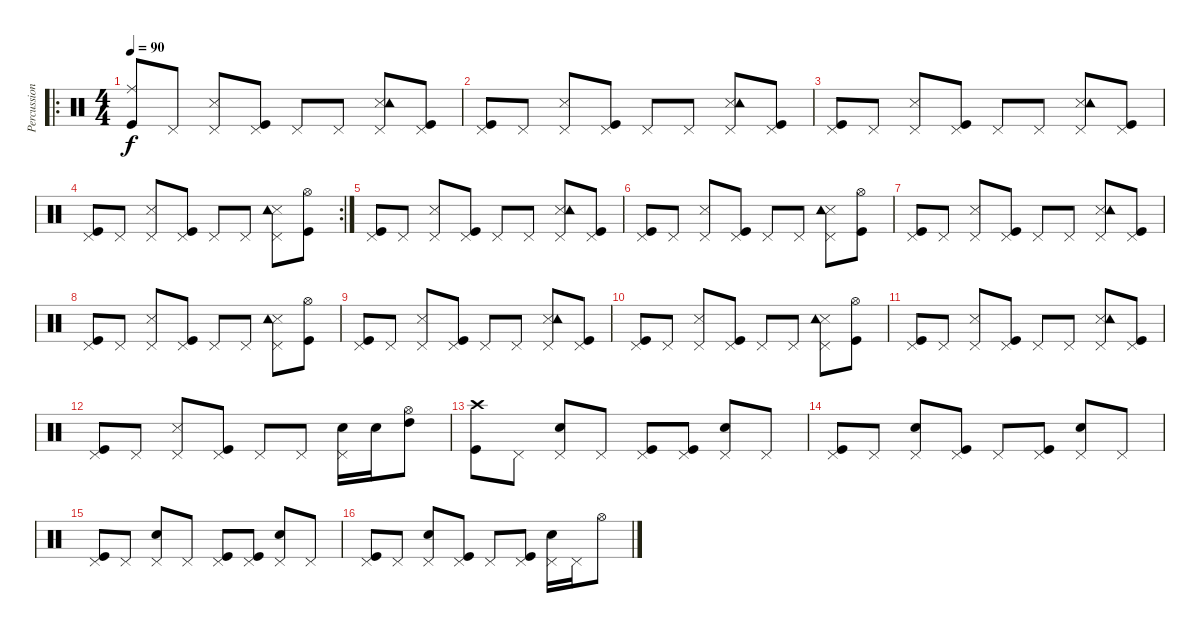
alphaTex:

\track ("Percussions" "Percussion") {instrument percussion}
\staff {score}
\articulation defaults
\ro
\ts (4 4)
\tempo 90
\clef neutral
\ks c
("Ride (middle)" "Kick (hit)").8{dy f} "Pedal Hi-Hat (hit)".8 ("Pedal Hi-Hat (hit)" "Snare (side stick) 3").8 ("Pedal Hi-Hat (hit)" "Kick (hit)").8 "Pedal Hi-Hat (hit)".8 "Pedal Hi-Hat (hit)".8 ("Pedal Hi-Hat (hit)" "Snare (side stick) 3" "Tambourine (hit)").8 ("Pedal Hi-Hat (hit)" "Kick (hit)").8 |
("Pedal Hi-Hat (hit)" "Kick (hit)").8 "Pedal Hi-Hat (hit)".8 ("Pedal Hi-Hat (hit)" "Snare (side stick) 3").8 ("Pedal Hi-Hat (hit)" "Kick (hit)").8 "Pedal Hi-Hat (hit)".8 "Pedal Hi-Hat (hit)".8 ("Pedal Hi-Hat (hit)" "Snare (side stick) 3" "Tambourine (hit)").8 ("Pedal Hi-Hat (hit)" "Kick (hit)").8 |
("Pedal Hi-Hat (hit)" "Kick (hit)").8 "Pedal Hi-Hat (hit)".8 ("Pedal Hi-Hat (hit)" "Snare (side stick) 3").8 ("Pedal Hi-Hat (hit)" "Kick (hit)").8 "Pedal Hi-Hat (hit)".8 "Pedal Hi-Hat (hit)".8 ("Pedal Hi-Hat (hit)" "Snare (side stick) 3" "Tambourine (hit)").8 ("Pedal Hi-Hat (hit)" "Kick (hit)").8 |
\rc 2
("Pedal Hi-Hat (hit)" "Kick (hit)").8 "Pedal Hi-Hat (hit)".8 ("Pedal Hi-Hat (hit)" "Snare (side stick) 3").8 ("Pedal Hi-Hat (hit)" "Kick (hit)").8 "Pedal Hi-Hat (hit)".8 "Pedal Hi-Hat (hit)".8 ("Pedal Hi-Hat (hit)" "Snare (side stick) 3" "Tambourine (hit)").8 ("Hi-Hat (open)" "Kick (hit)").8 |
("Pedal Hi-Hat (hit)" "Kick (hit)").8 "Pedal Hi-Hat (hit)".8 ("Pedal Hi-Hat (hit)" "Snare (side stick) 3").8 ("Pedal Hi-Hat (hit)" "Kick (hit)").8 "Pedal Hi-Hat (hit)".8 "Pedal Hi-Hat (hit)".8 ("Pedal Hi-Hat (hit)" "Snare (side stick) 3" "Tambourine (hit)").8 ("Pedal Hi-Hat (hit)" "Kick (hit)").8 |
("Pedal Hi-Hat (hit)" "Kick (hit)").8 "Pedal Hi-Hat (hit)".8 ("Pedal Hi-Hat (hit)" "Snare (side stick) 3").8 ("Pedal Hi-Hat (hit)" "Kick (hit)").8 "Pedal Hi-Hat (hit)".8 "Pedal Hi-Hat (hit)".8 ("Pedal Hi-Hat (hit)" "Snare (side stick) 3" "Tambourine (hit)").8 ("Hi-Hat (open)" "Kick (hit)").8 |
("Pedal Hi-Hat (hit)" "Kick (hit)").8 "Pedal Hi-Hat (hit)".8 ("Pedal Hi-Hat (hit)" "Snare (side stick) 3").8 ("Pedal Hi-Hat (hit)" "Kick (hit)").8 "Pedal Hi-Hat (hit)".8 "Pedal Hi-Hat (hit)".8 ("Pedal Hi-Hat (hit)" "Snare (side stick) 3" "Tambourine (hit)").8 ("Pedal Hi-Hat (hit)" "Kick (hit)").8 |
("Pedal Hi-Hat (hit)" "Kick (hit)").8 "Pedal Hi-Hat (hit)".8 ("Pedal Hi-Hat (hit)" "Snare (side stick) 3").8 ("Pedal Hi-Hat (hit)" "Kick (hit)").8 "Pedal Hi-Hat (hit)".8 "Pedal Hi-Hat (hit)".8 ("Pedal Hi-Hat (hit)" "Snare (side stick) 3" "Tambourine (hit)").8 ("Hi-Hat (open)" "Kick (hit)").8 |
("Pedal Hi-Hat (hit)" "Kick (hit)").8 "Pedal Hi-Hat (hit)".8 ("Pedal Hi-Hat (hit)" "Snare (side stick) 3").8 ("Pedal Hi-Hat (hit)" "Kick (hit)").8 "Pedal Hi-Hat (hit)".8 "Pedal Hi-Hat (hit)".8 ("Pedal Hi-Hat (hit)" "Snare (side stick) 3" "Tambourine (hit)").8 ("Pedal Hi-Hat (hit)" "Kick (hit)").8 |
("Pedal Hi-Hat (hit)" "Kick (hit)").8 "Pedal Hi-Hat (hit)".8 ("Pedal Hi-Hat (hit)" "Snare (side stick) 3").8 ("Pedal Hi-Hat (hit)" "Kick (hit)").8 "Pedal Hi-Hat (hit)".8 "Pedal Hi-Hat (hit)".8 ("Pedal Hi-Hat (hit)" "Snare (side stick) 3" "Tambourine (hit)").8 ("Hi-Hat (open)" "Kick (hit)").8 |
("Pedal Hi-Hat (hit)" "Kick (hit)").8 "Pedal Hi-Hat (hit)".8 ("Pedal Hi-Hat (hit)" "Snare (side stick) 3").8 ("Pedal Hi-Hat (hit)" "Kick (hit)").8 "Pedal Hi-Hat (hit)".8 "Pedal Hi-Hat (hit)".8 ("Pedal Hi-Hat (hit)" "Snare (side stick) 3" "Tambourine (hit)").8 ("Pedal Hi-Hat (hit)" "Kick (hit)").8 |
("Pedal Hi-Hat (hit)" "Kick (hit)").8 "Pedal Hi-Hat (hit)".8 ("Pedal Hi-Hat (hit)" "Snare (side stick) 3").8 ("Pedal Hi-Hat (hit)" "Kick (hit)").8 "Pedal Hi-Hat (hit)".8 "Pedal Hi-Hat (hit)".8 ("Pedal Hi-Hat (hit)" "Snare (hit) 2").16 "Snare (hit) 2".16 ("Hi-Hat (open)" "High Tom (hit)").8 |
("Crash high (hit)" "Kick (hit)").8 "Pedal Hi-Hat (hit)".8 ("Pedal Hi-Hat (hit)" "Snare (hit) 2").8 "Pedal Hi-Hat (hit)".8 ("Pedal Hi-Hat (hit)" "Kick (hit)").8 ("Pedal Hi-Hat (hit)" "Kick (hit)").8 ("Pedal Hi-Hat (hit)" "Snare (hit) 2").8 "Pedal Hi-Hat (hit)".8 |
("Pedal Hi-Hat (hit)" "Kick (hit)").8 "Pedal Hi-Hat (hit)".8 ("Pedal Hi-Hat (hit)" "Snare (hit) 2").8 ("Pedal Hi-Hat (hit)" "Kick (hit)").8 "Pedal Hi-Hat (hit)".8 ("Pedal Hi-Hat (hit)" "Kick (hit)").8 ("Pedal Hi-Hat (hit)" "Snare (hit) 2").8 "Pedal Hi-Hat (hit)".8 |
("Pedal Hi-Hat (hit)" "Kick (hit)").8 "Pedal Hi-Hat (hit)".8 ("Pedal Hi-Hat (hit)" "Snare (hit) 2").8 "Pedal Hi-Hat (hit)".8 ("Pedal Hi-Hat (hit)" "Kick (hit)").8 ("Pedal Hi-Hat (hit)" "Kick (hit)").8 ("Pedal Hi-Hat (hit)" "Snare (hit) 2").8 "Pedal Hi-Hat (hit)".8 |
("Pedal Hi-Hat (hit)" "Kick (hit)").8 "Pedal Hi-Hat (hit)".8 ("Pedal Hi-Hat (hit)" "Snare (hit) 2").8 ("Pedal Hi-Hat (hit)" "Kick (hit)").8 "Pedal Hi-Hat (hit)".8 ("Pedal Hi-Hat (hit)" "Kick (hit)").8 ("Pedal Hi-Hat (hit)" "Snare (hit) 2").16 "Pedal Hi-Hat (hit)".16 "Hi-Hat (open)".8
